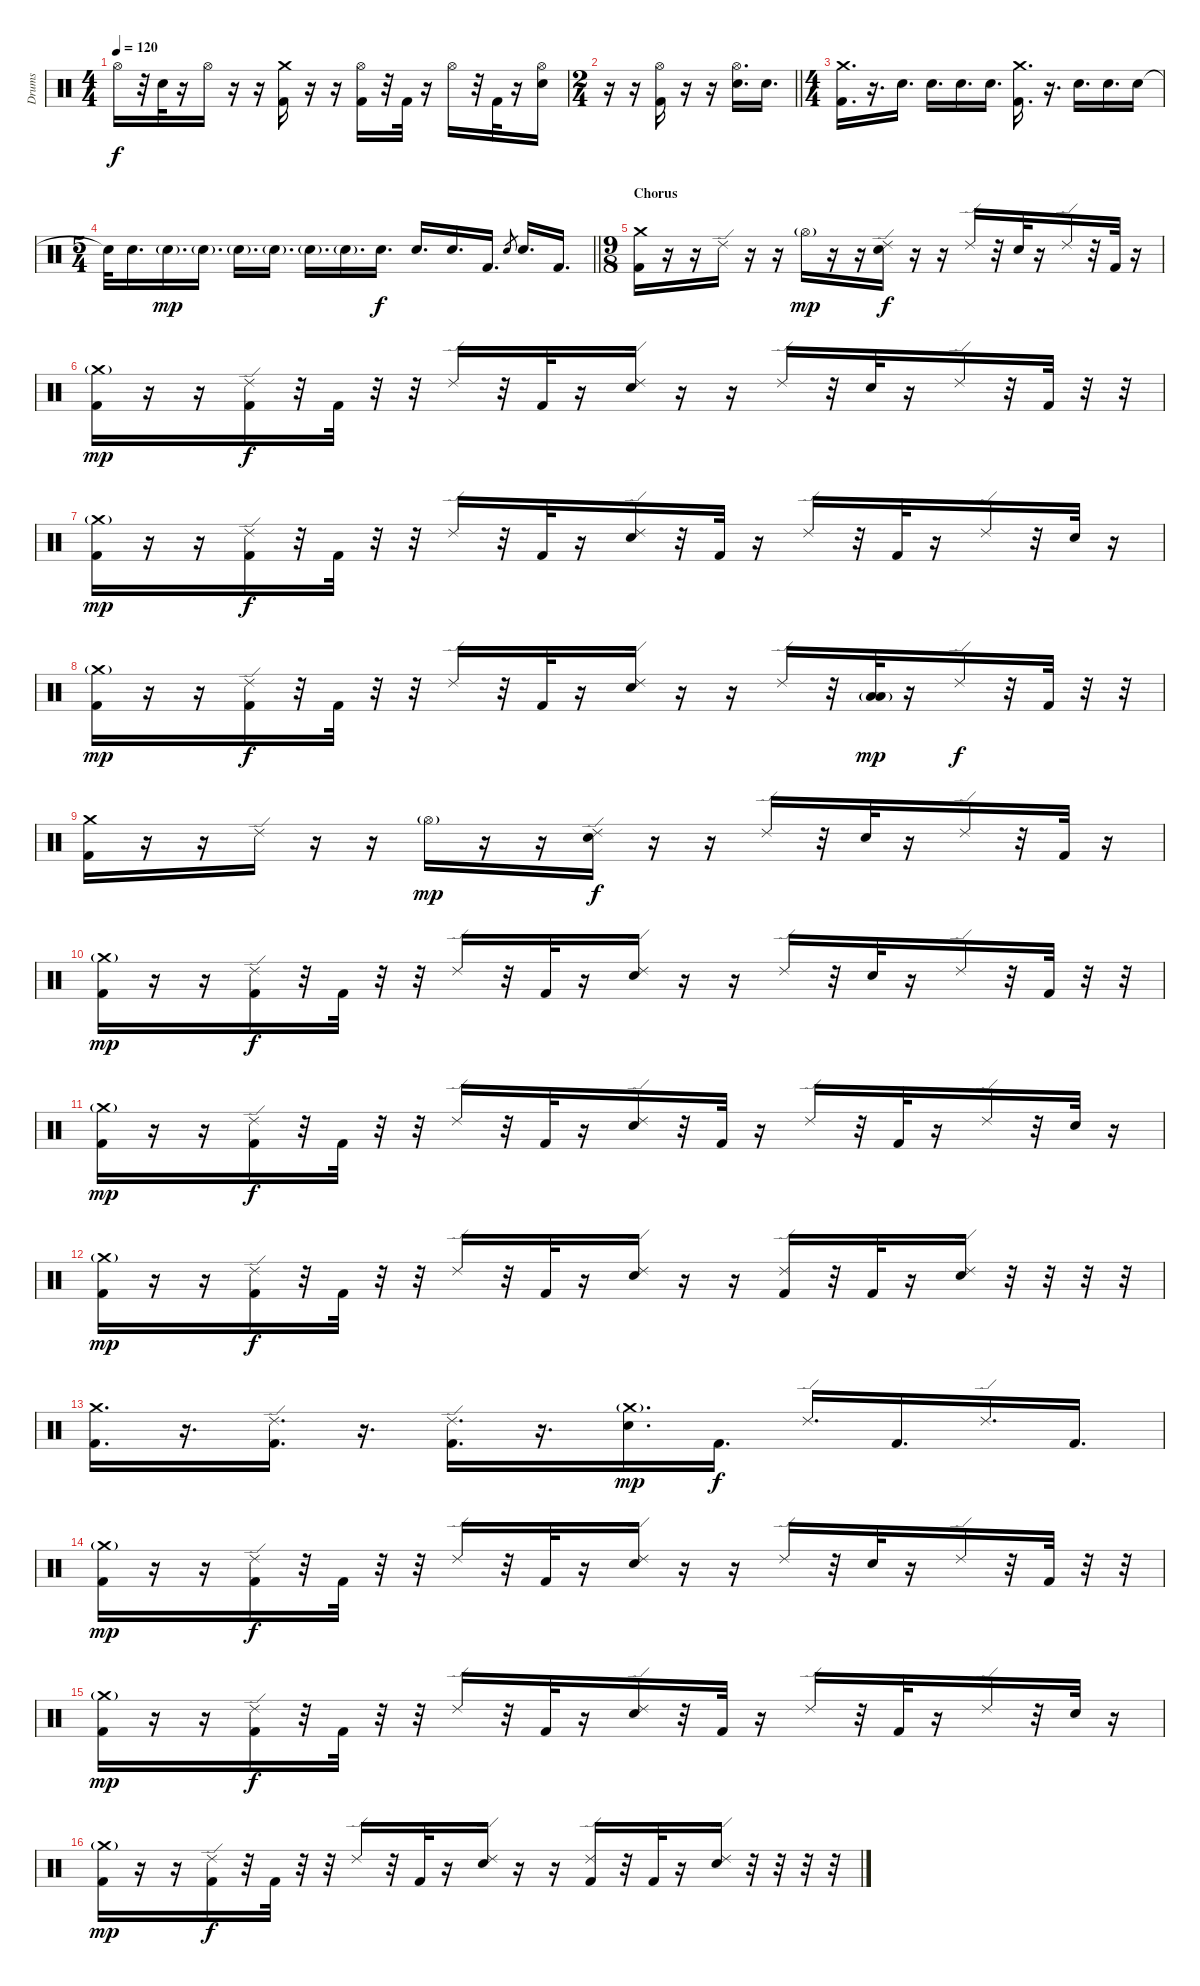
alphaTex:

\track ("Drums" "Drums") {instrument percussion}
\staff {score}
\articulation defaults
\ts (4 4)
\tempo 120
\clef neutral
\ks c "Hi-Hat (open)".16{dy f}
r.32 "Electric Snare (hit)".32 r.16 "Hi-Hat (open)".16 r.16 r.16 ("Crash medium (hit)" "Kick (hit) 2").16 r.16 r.16 ("Hi-Hat (open)" "Kick (hit) 2").16 r.32 "Kick (hit) 2".32 r.16 "Hi-Hat (open)".16 r.32 "Kick (hit) 2".32 r.16 ("Hi-Hat (open)" "Electric Snare (hit)").16 |
\ts (2 4)
\barLineRight lightlight
r.16 r.16 ("Hi-Hat (open)" "Kick (hit) 2").16 r.16 r.16 ("Hi-Hat (open)" "Electric Snare (hit)").16{d} "Electric Snare (hit)".16{d} |
\ts (4 4)
("Crash medium (hit)" "Kick (hit) 2").16{d} r.16{d} "Electric Snare (hit)".16{d} "Electric Snare (hit)".16{d} "Electric Snare (hit)".16{d} "Electric Snare (hit)".16{d} ("Crash medium (hit)" "Kick (hit) 2").16{d} r.16{d} "Electric Snare (hit)".16{d} "Electric Snare (hit)".16{d} "Electric Snare (hit)".16 |
\ts (5 4)
\barLineRight lightlight "Snare (hit)"{t}.32 "Electric Snare (hit)".16{d} "Electric Snare (hit)"{g}.16{d dy mp} "Electric Snare (hit)"{g}.16{d} "Electric Snare (hit)"{g}.16{d} "Electric Snare (hit)"{g}.16{d} "Electric Snare (hit)"{g}.16{d} "Electric Snare (hit)"{g}.16{d} "Electric Snare (hit)".16{d dy f} "Electric Snare (hit)".16{d} "Electric Snare (hit)".16{d} "Kick (hit) 2".16{d} "Electric Snare (hit)".8{gr} "Electric Snare (hit)".16{d} "Kick (hit) 2".16{d}
|
\ts (9 8)
\section ("" "Chorus")
("Crash medium (hit)" "Kick (hit) 2").16 r.16 r.16 "Ride (edge) 2".16 r.16 r.16 "Hi-Hat (open)"{g}.16{dy mp} r.16 r.16 ("Ride (edge) 2" "Electric Snare (hit)").16{dy f} r.16 r.16 "Ride (edge) 2".16 r.32 "Electric Snare (hit)".32 r.16 "Ride (edge) 2".16 r.32 "Kick (hit) 2".32 r.16 |
("Crash medium (hit)"{g} "Kick (hit) 2").16{dy mp} r.16 r.16 ("Ride (edge) 2" "Kick (hit) 2").16{dy f} r.32 "Kick (hit) 2".32 r.32 r.32 "Ride (edge) 2".16 r.32 "Kick (hit) 2".32 r.16 ("Ride (edge) 2" "Electric Snare (hit)").16 r.16 r.16 "Ride (edge) 2".16 r.32 "Electric Snare (hit)".32 r.16 "Ride (edge) 2".16 r.32 "Kick (hit) 2".32 r.32 r.32 |
("Crash medium (hit)"{g} "Kick (hit) 2").16{dy mp} r.16 r.16 ("Ride (edge) 2" "Kick (hit) 2").16{dy f} r.32 "Kick (hit) 2".32 r.32 r.32 "Ride (edge) 2".16 r.32 "Kick (hit) 2".32 r.16 ("Ride (edge) 2" "Electric Snare (hit)").16 r.32 "Kick (hit) 2".32 r.16 "Ride (edge) 2".16 r.32 "Kick (hit) 2".32 r.16 "Ride (edge) 2".16 r.32 "Electric Snare (hit)".32 r.16 |
("Crash medium (hit)"{g} "Kick (hit) 2").16{dy mp} r.16 r.16 ("Ride (edge) 2" "Kick (hit) 2").16{dy f} r.32 "Kick (hit) 2".32 r.32 r.32 "Ride (edge) 2".16 r.32 "Kick (hit) 2".32 r.16 ("Ride (edge) 2" "Electric Snare (hit)").16 r.16 r.16 "Ride (edge) 2".16 r.32 ("Low Tom (hit)"{g} "Low Tom (hit)").32{dy mp} r.16 "Ride (edge) 2".16{dy f} r.32 "Kick (hit) 2".32 r.32 r.32 |
("Crash medium (hit)" "Kick (hit) 2").16 r.16 r.16 "Ride (edge) 2".16 r.16 r.16 "Hi-Hat (open)"{g}.16{dy mp} r.16 r.16 ("Ride (edge) 2" "Electric Snare (hit)").16{dy f} r.16 r.16 "Ride (edge) 2".16 r.32 "Electric Snare (hit)".32 r.16 "Ride (edge) 2".16 r.32 "Kick (hit) 2".32 r.16 |
("Crash medium (hit)"{g} "Kick (hit) 2").16{dy mp} r.16 r.16 ("Ride (edge) 2" "Kick (hit) 2").16{dy f} r.32 "Kick (hit) 2".32 r.32 r.32 "Ride (edge) 2".16 r.32 "Kick (hit) 2".32 r.16 ("Ride (edge) 2" "Electric Snare (hit)").16 r.16 r.16 "Ride (edge) 2".16 r.32 "Electric Snare (hit)".32 r.16 "Ride (edge) 2".16 r.32 "Kick (hit) 2".32 r.32 r.32 |
("Crash medium (hit)"{g} "Kick (hit) 2").16{dy mp} r.16 r.16 ("Ride (edge) 2" "Kick (hit) 2").16{dy f} r.32 "Kick (hit) 2".32 r.32 r.32 "Ride (edge) 2".16 r.32 "Kick (hit) 2".32 r.16 ("Ride (edge) 2" "Electric Snare (hit)").16 r.32 "Kick (hit) 2".32 r.16 "Ride (edge) 2".16 r.32 "Kick (hit) 2".32 r.16 "Ride (edge) 2".16 r.32 "Electric Snare (hit)".32 r.16 |
("Crash medium (hit)"{g} "Kick (hit) 2").16{dy mp} r.16 r.16 ("Ride (edge) 2" "Kick (hit) 2").16{dy f} r.32 "Kick (hit) 2".32 r.32 r.32 "Ride (edge) 2".16 r.32 "Kick (hit) 2".32 r.16 ("Ride (edge) 2" "Electric Snare (hit)").16 r.16 r.16 ("Ride (edge) 2" "Kick (hit) 2").16 r.32 "Kick (hit) 2".32 r.16 ("Ride (edge) 2" "Electric Snare (hit)").16 r.32 r.32 r.32 r.32 |
("Crash medium (hit)" "Kick (hit) 2").16{d} r.16{d} ("Ride (edge) 2" "Kick (hit) 2").16{d} r.16{d} ("Ride (edge) 2" "Kick (hit) 2").16{d} r.16{d} ("Crash medium (hit)"{g} "Electric Snare (hit)").16{d dy mp} "Kick (hit) 2".16{d dy f} "Ride (edge) 2".16{d} "Kick (hit) 2".16{d} "Ride (edge) 2".16{d} "Kick (hit) 2".16{d} |
("Crash medium (hit)"{g} "Kick (hit) 2").16{dy mp} r.16 r.16 ("Ride (edge) 2" "Kick (hit) 2").16{dy f} r.32 "Kick (hit) 2".32 r.32 r.32 "Ride (edge) 2".16 r.32 "Kick (hit) 2".32 r.16 ("Ride (edge) 2" "Electric Snare (hit)").16 r.16 r.16 "Ride (edge) 2".16 r.32 "Electric Snare (hit)".32 r.16 "Ride (edge) 2".16 r.32 "Kick (hit) 2".32 r.32 r.32 |
("Crash medium (hit)"{g} "Kick (hit) 2").16{dy mp} r.16 r.16 ("Ride (edge) 2" "Kick (hit) 2").16{dy f} r.32 "Kick (hit) 2".32 r.32 r.32 "Ride (edge) 2".16 r.32 "Kick (hit) 2".32 r.16 ("Ride (edge) 2" "Electric Snare (hit)").16 r.32 "Kick (hit) 2".32 r.16 "Ride (edge) 2".16 r.32 "Kick (hit) 2".32 r.16 "Ride (edge) 2".16 r.32 "Electric Snare (hit)".32 r.16 |
("Crash medium (hit)"{g} "Kick (hit) 2").16{dy mp} r.16 r.16 ("Ride (edge) 2" "Kick (hit) 2").16{dy f} r.32 "Kick (hit) 2".32 r.32 r.32 "Ride (edge) 2".16 r.32 "Kick (hit) 2".32 r.16 ("Ride (edge) 2" "Electric Snare (hit)").16 r.16 r.16 ("Ride (edge) 2" "Kick (hit) 2").16 r.32 "Kick (hit) 2".32 r.16 ("Ride (edge) 2" "Electric Snare (hit)").16 r.32 r.32 r.32 r.32
